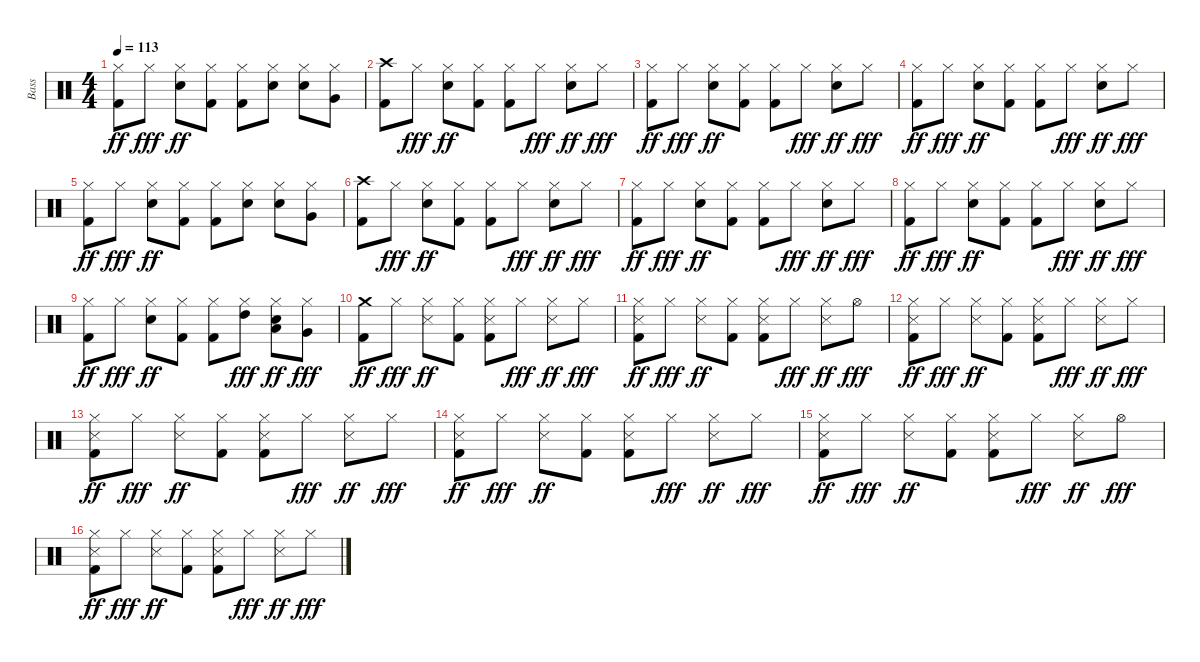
\track (" Bass" " Bass") {instrument percussion}
\staff {score}
\articulation defaults
\ts (4 4)
\tempo 113
\clef neutral
\ks c
("Hi-Hat (closed)" "Kick (hit) 2").8{dy ff} "Hi-Hat (closed)".8{dy fff} ("Hi-Hat (closed)" "Snare (hit) 2").8{dy ff} ("Hi-Hat (closed)" "Kick (hit) 2").8 ("Hi-Hat (closed)" "Kick (hit) 2").8 ("Hi-Hat (closed)" "Snare (hit) 2").8 ("Hi-Hat (closed)" "Snare (hit) 2").8 ("Hi-Hat (closed)" "Very Low Tom (hit)").8 |
("Crash high (hit)" "Kick (hit) 2").8 "Hi-Hat (closed)".8{dy fff} ("Hi-Hat (closed)" "Snare (hit) 2").8{dy ff} ("Hi-Hat (closed)" "Kick (hit) 2").8 ("Hi-Hat (closed)" "Kick (hit) 2").8 "Hi-Hat (closed)".8{dy fff} ("Hi-Hat (closed)" "Snare (hit) 2").8{dy ff} "Hi-Hat (closed)".8{dy fff} |
("Hi-Hat (closed)" "Kick (hit) 2").8{dy ff} "Hi-Hat (closed)".8{dy fff} ("Hi-Hat (closed)" "Snare (hit) 2").8{dy ff} ("Hi-Hat (closed)" "Kick (hit) 2").8 ("Hi-Hat (closed)" "Kick (hit) 2").8 "Hi-Hat (closed)".8{dy fff} ("Hi-Hat (closed)" "Snare (hit) 2").8{dy ff} "Hi-Hat (closed)".8{dy fff} |
("Hi-Hat (closed)" "Kick (hit) 2").8{dy ff} "Hi-Hat (closed)".8{dy fff} ("Hi-Hat (closed)" "Snare (hit) 2").8{dy ff} ("Hi-Hat (closed)" "Kick (hit) 2").8 ("Hi-Hat (closed)" "Kick (hit) 2").8 "Hi-Hat (closed)".8{dy fff} ("Hi-Hat (closed)" "Snare (hit) 2").8{dy ff} "Hi-Hat (closed)".8{dy fff} |
("Hi-Hat (closed)" "Kick (hit) 2").8{dy ff} "Hi-Hat (closed)".8{dy fff} ("Hi-Hat (closed)" "Snare (hit) 2").8{dy ff} ("Hi-Hat (closed)" "Kick (hit) 2").8 ("Hi-Hat (closed)" "Kick (hit) 2").8 ("Hi-Hat (closed)" "Snare (hit) 2").8 ("Hi-Hat (closed)" "Snare (hit) 2").8 ("Hi-Hat (closed)" "Very Low Tom (hit)").8 |
("Crash high (hit)" "Kick (hit) 2").8 "Hi-Hat (closed)".8{dy fff} ("Hi-Hat (closed)" "Snare (hit) 2").8{dy ff} ("Hi-Hat (closed)" "Kick (hit) 2").8 ("Hi-Hat (closed)" "Kick (hit) 2").8 "Hi-Hat (closed)".8{dy fff} ("Hi-Hat (closed)" "Snare (hit) 2").8{dy ff} "Hi-Hat (closed)".8{dy fff} |
("Hi-Hat (closed)" "Kick (hit) 2").8{dy ff} "Hi-Hat (closed)".8{dy fff} ("Hi-Hat (closed)" "Snare (hit) 2").8{dy ff} ("Hi-Hat (closed)" "Kick (hit) 2").8 ("Hi-Hat (closed)" "Kick (hit) 2").8 "Hi-Hat (closed)".8{dy fff} ("Hi-Hat (closed)" "Snare (hit) 2").8{dy ff} "Hi-Hat (closed)".8{dy fff} |
("Hi-Hat (closed)" "Kick (hit) 2").8{dy ff} "Hi-Hat (closed)".8{dy fff} ("Hi-Hat (closed)" "Snare (hit) 2").8{dy ff} ("Hi-Hat (closed)" "Kick (hit) 2").8 ("Hi-Hat (closed)" "Kick (hit) 2").8 "Hi-Hat (closed)".8{dy fff} ("Hi-Hat (closed)" "Snare (hit) 2").8{dy ff} "Hi-Hat (closed)".8{dy fff} |
("Hi-Hat (closed)" "Kick (hit) 2").8{dy ff} "Hi-Hat (closed)".8{dy fff} ("Hi-Hat (closed)" "Snare (hit) 2").8{dy ff} ("Hi-Hat (closed)" "Kick (hit) 2").8 ("Hi-Hat (closed)" "Kick (hit) 2").8 ("Hi-Hat (closed)" "High Tom (hit)").8{dy fff} ("Hi-Hat (closed)" "Low Tom (hit)" "Snare (hit) 2").8{dy ff} ("Hi-Hat (closed)" "Very Low Tom (hit)").8{dy fff} |
("Crash medium (hit)" "Kick (hit) 2").8{dy ff} "Hi-Hat (closed)".8{dy fff} ("Hi-Hat (closed)" "Snare (side stick) 3").8{dy ff} ("Hi-Hat (closed)" "Kick (hit) 2").8 ("Hi-Hat (closed)" "Kick (hit) 2" "Snare (side stick) 3").8 "Hi-Hat (closed)".8{dy fff} ("Hi-Hat (closed)" "Snare (side stick) 3").8{dy ff} "Hi-Hat (closed)".8{dy fff} |
("Hi-Hat (closed)" "Snare (side stick) 3" "Kick (hit) 2").8{dy ff} "Hi-Hat (closed)".8{dy fff} ("Hi-Hat (closed)" "Snare (side stick) 3").8{dy ff} ("Hi-Hat (closed)" "Kick (hit) 2").8 ("Hi-Hat (closed)" "Kick (hit) 2" "Snare (side stick) 3").8 "Hi-Hat (closed)".8{dy fff} ("Hi-Hat (closed)" "Snare (side stick) 3").8{dy ff} "Hi-Hat (open)".8{dy fff} |
("Hi-Hat (closed)" "Kick (hit) 2" "Snare (side stick) 3").8{dy ff} "Hi-Hat (closed)".8{dy fff} ("Hi-Hat (closed)" "Snare (side stick) 3").8{dy ff} ("Hi-Hat (closed)" "Kick (hit) 2").8 ("Hi-Hat (closed)" "Snare (side stick) 3" "Kick (hit) 2").8 "Hi-Hat (closed)".8{dy fff} ("Hi-Hat (closed)" "Snare (side stick) 3").8{dy ff} "Hi-Hat (closed)".8{dy fff} |
("Hi-Hat (closed)" "Kick (hit) 2" "Snare (side stick) 3").8{dy ff} "Hi-Hat (closed)".8{dy fff} ("Hi-Hat (closed)" "Snare (side stick) 3").8{dy ff} ("Hi-Hat (closed)" "Kick (hit) 2").8 ("Hi-Hat (closed)" "Kick (hit) 2" "Snare (side stick) 3").8 "Hi-Hat (closed)".8{dy fff} ("Hi-Hat (closed)" "Snare (side stick) 3").8{dy ff} "Hi-Hat (closed)".8{dy fff} |
("Hi-Hat (closed)" "Snare (side stick) 3" "Kick (hit) 2").8{dy ff} "Hi-Hat (closed)".8{dy fff} ("Hi-Hat (closed)" "Snare (side stick) 3").8{dy ff} ("Hi-Hat (closed)" "Kick (hit) 2").8 ("Hi-Hat (closed)" "Kick (hit) 2" "Snare (side stick) 3").8 "Hi-Hat (closed)".8{dy fff} ("Hi-Hat (closed)" "Snare (side stick) 3").8{dy ff} "Hi-Hat (closed)".8{dy fff} |
("Hi-Hat (closed)" "Kick (hit) 2" "Snare (side stick) 3").8{dy ff} "Hi-Hat (closed)".8{dy fff} ("Hi-Hat (closed)" "Snare (side stick) 3").8{dy ff} ("Hi-Hat (closed)" "Kick (hit) 2").8 ("Hi-Hat (closed)" "Kick (hit) 2" "Snare (side stick) 3").8 "Hi-Hat (closed)".8{dy fff} ("Hi-Hat (closed)" "Snare (side stick) 3").8{dy ff} "Hi-Hat (open)".8{dy fff} |
("Hi-Hat (closed)" "Snare (side stick) 3" "Kick (hit) 2").8{dy ff} "Hi-Hat (closed)".8{dy fff} ("Hi-Hat (closed)" "Snare (side stick) 3").8{dy ff} ("Hi-Hat (closed)" "Kick (hit) 2").8 ("Hi-Hat (closed)" "Snare (side stick) 3" "Kick (hit) 2").8 "Hi-Hat (closed)".8{dy fff} ("Hi-Hat (closed)" "Snare (side stick) 3").8{dy ff} "Hi-Hat (closed)".8{dy fff}
